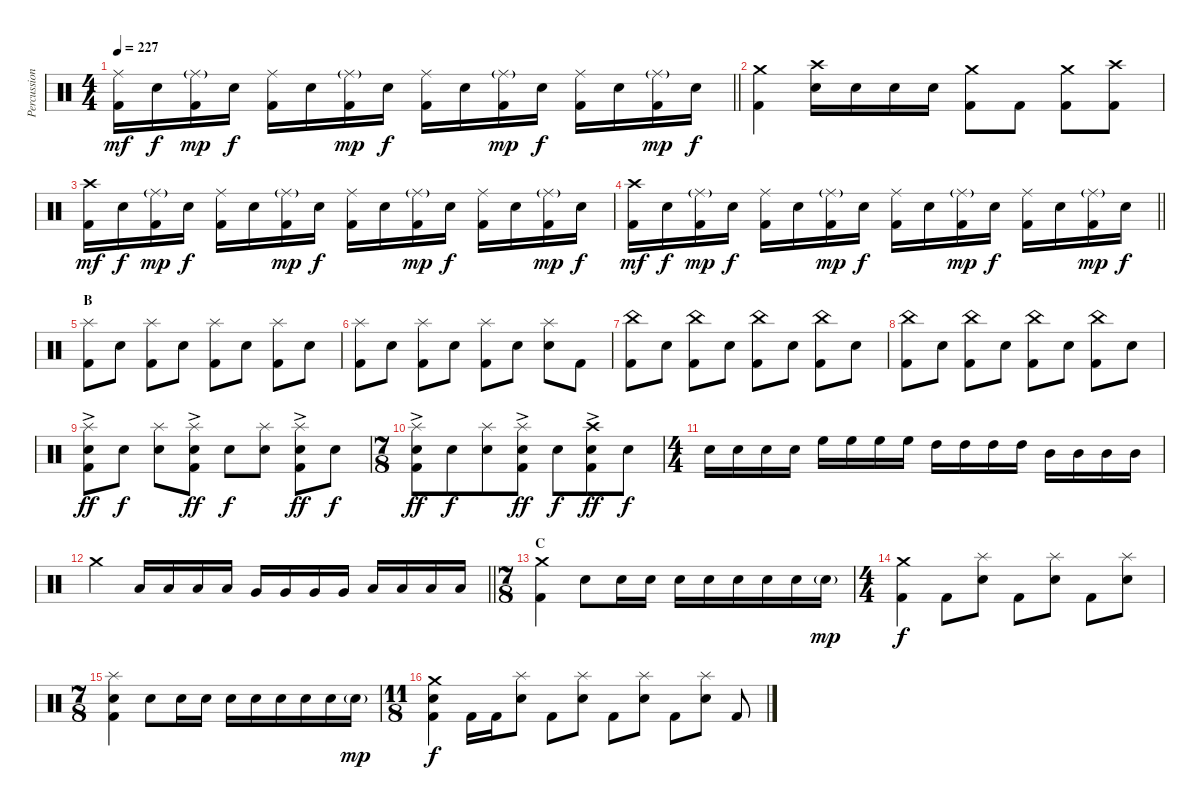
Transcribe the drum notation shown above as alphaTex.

\track ("Percussion" "Percussion") {instrument percussion}
\staff {score}
\articulation defaults
\ts (4 4)
\tempo 227
\clef neutral
\barLineRight lightlight
\ks c
("Ride (middle)" "Kick (hit) 2").16{dy mf} "Electric Snare (hit)".16{dy f} ("Ride (middle)"{g} "Kick (hit) 2").16{dy mp} "Electric Snare (hit)".16{dy f} ("Ride (middle)" "Kick (hit) 2").16 "Electric Snare (hit)".16 ("Ride (middle)"{g} "Kick (hit) 2").16{dy mp} "Electric Snare (hit)".16{dy f} ("Ride (middle)" "Kick (hit) 2").16 "Electric Snare (hit)".16 ("Ride (middle)"{g} "Kick (hit) 2").16{dy mp} "Electric Snare (hit)".16{dy f} ("Ride (middle)" "Kick (hit) 2").16 "Electric Snare (hit)".16 ("Ride (middle)"{g} "Kick (hit) 2").16{dy mp} "Electric Snare (hit)".16{dy f} |
\section ("" "")
("Crash medium (hit)" "Kick (hit) 2").4 ("Crash high (hit)" "Electric Snare (hit)").16 "Electric Snare (hit)".16 "Electric Snare (hit)".16 "Electric Snare (hit)".16 ("Crash medium (hit)" "Kick (hit) 2").8 "Kick (hit) 2".8 ("Crash medium (hit)" "Kick (hit) 2").8 ("Crash high (hit)" "Kick (hit) 2").8 |
("Crash high (hit)" "Kick (hit) 2").16{dy mf} "Electric Snare (hit)".16{dy f} ("Ride (middle)"{g} "Kick (hit) 2").16{dy mp} "Electric Snare (hit)".16{dy f} ("Ride (middle)" "Kick (hit) 2").16 "Electric Snare (hit)".16 ("Ride (middle)"{g} "Kick (hit) 2").16{dy mp} "Electric Snare (hit)".16{dy f} ("Ride (middle)" "Kick (hit) 2").16 "Electric Snare (hit)".16 ("Ride (middle)"{g} "Kick (hit) 2").16{dy mp} "Electric Snare (hit)".16{dy f} ("Ride (middle)" "Kick (hit) 2").16 "Electric Snare (hit)".16 ("Ride (middle)"{g} "Kick (hit) 2").16{dy mp} "Electric Snare (hit)".16{dy f} |
\barLineRight lightlight
("Crash high (hit)" "Kick (hit) 2").16{dy mf} "Electric Snare (hit)".16{dy f} ("Ride (middle)"{g} "Kick (hit) 2").16{dy mp} "Electric Snare (hit)".16{dy f} ("Ride (middle)" "Kick (hit) 2").16 "Electric Snare (hit)".16 ("Ride (middle)"{g} "Kick (hit) 2").16{dy mp} "Electric Snare (hit)".16{dy f} ("Ride (middle)" "Kick (hit) 2").16 "Electric Snare (hit)".16 ("Ride (middle)"{g} "Kick (hit) 2").16{dy mp} "Electric Snare (hit)".16{dy f} ("Ride (middle)" "Kick (hit) 2").16 "Electric Snare (hit)".16 ("Ride (middle)"{g} "Kick (hit) 2").16{dy mp} "Electric Snare (hit)".16{dy f} |
\section ("" "B")
("Splash (hit)" "Kick (hit) 2").8 "Electric Snare (hit)".8 ("Splash (hit)" "Kick (hit) 2").8 "Electric Snare (hit)".8 ("Splash (hit)" "Kick (hit) 2").8 "Electric Snare (hit)".8 ("Splash (hit)" "Kick (hit) 2").8 "Electric Snare (hit)".8 |
("Splash (hit)" "Kick (hit) 2").8 "Electric Snare (hit)".8 ("Splash (hit)" "Kick (hit) 2").8 "Electric Snare (hit)".8 ("Splash (hit)" "Kick (hit) 2").8 "Electric Snare (hit)".8 ("Splash (hit)" "Electric Snare (hit)").8 "Kick (hit) 2".8 |
("China (hit)" "Kick (hit) 2").8 "Electric Snare (hit)".8 ("China (hit)" "Kick (hit) 2").8 "Electric Snare (hit)".8 ("China (hit)" "Kick (hit) 2").8 "Electric Snare (hit)".8 ("China (hit)" "Kick (hit) 2").8 "Electric Snare (hit)".8 |
("China (hit)" "Kick (hit) 2").8 "Electric Snare (hit)".8 ("China (hit)" "Kick (hit) 2").8 "Electric Snare (hit)".8 ("China (hit)" "Kick (hit) 2").8 "Electric Snare (hit)".8 ("China (hit)" "Kick (hit) 2").8 "Electric Snare (hit)".8 |
("Splash (hit)"{ac} "Electric Snare (hit)" "Kick (hit) 2").8{dy ff} "Electric Snare (hit)".8{dy f} ("Splash (hit)" "Electric Snare (hit)").8 ("Splash (hit)"{ac} "Electric Snare (hit)" "Kick (hit) 2").8{dy ff} "Electric Snare (hit)".8{dy f} ("Splash (hit)" "Electric Snare (hit)").8 ("Splash (hit)"{ac} "Electric Snare (hit)" "Kick (hit) 2").8{dy ff} "Electric Snare (hit)".8{dy f} |
\ts (7 8)
("Splash (hit)"{ac} "Electric Snare (hit)" "Kick (hit) 2").8{dy ff} "Electric Snare (hit)".8{dy f} ("Splash (hit)" "Electric Snare (hit)").8 ("Splash (hit)"{ac} "Electric Snare (hit)" "Kick (hit) 2").8{dy ff} "Electric Snare (hit)".8{dy f} ("Crash high (hit)"{ac} "Electric Snare (hit)" "Kick (hit) 2").8{dy ff} "Electric Snare (hit)".8{dy f} |
\ts (4 4)
"Electric Snare (hit)".16 "Electric Snare (hit)".16 "Electric Snare (hit)".16 "Electric Snare (hit)".16 "High Floor Tom (hit)".16 "High Floor Tom (hit)".16 "High Floor Tom (hit)".16 "High Floor Tom (hit)".16 "High Tom (hit)".16 "High Tom (hit)".16 "High Tom (hit)".16 "High Tom (hit)".16 "Mid Tom (hit)".16 "Mid Tom (hit)".16 "Mid Tom (hit)".16 "Mid Tom (hit)".16 |
\barLineRight lightlight "Crash medium (hit)".4 "Low Tom (hit)".16 "Low Tom (hit)".16 "Low Tom (hit)".16 "Low Tom (hit)".16 "Very Low Tom (hit)".16 "Very Low Tom (hit)".16 "Very Low Tom (hit)".16 "Very Low Tom (hit)".16 "Low Floor Tom (hit)".16 "Low Floor Tom (hit)".16 "Low Floor Tom (hit)".16 "Low Floor Tom (hit)".16
|
\ts (7 8)
\section ("" "C")
("Crash medium (hit)" "Kick (hit) 2").4 "Electric Snare (hit)".8 "Electric Snare (hit)".16 "Electric Snare (hit)".16 "Electric Snare (hit)".16 "Electric Snare (hit)".16 "Electric Snare (hit)".16 "Electric Snare (hit)".16 "Electric Snare (hit)".16 "Electric Snare (hit)"{g}.16{dy mp} |
\ts (4 4)
("Crash medium (hit)" "Kick (hit) 2").4{dy f} "Kick (hit) 2".8 ("Splash (hit)" "Electric Snare (hit)").8 "Kick (hit) 2".8 ("Splash (hit)" "Electric Snare (hit)").8 "Kick (hit) 2".8 ("Splash (hit)" "Electric Snare (hit)").8 |
\ts (7 8)
("Splash (hit)" "Electric Snare (hit)" "Kick (hit) 2").4 "Electric Snare (hit)".8 "Electric Snare (hit)".16 "Electric Snare (hit)".16 "Electric Snare (hit)".16 "Electric Snare (hit)".16 "Electric Snare (hit)".16 "Electric Snare (hit)".16 "Electric Snare (hit)".16 "Electric Snare (hit)"{g}.16{dy mp} |
\ts (11 8)
("Crash medium (hit)" "Electric Snare (hit)" "Kick (hit) 2").4{dy f} "Kick (hit) 2".16 "Kick (hit) 2".16 ("Splash (hit)" "Electric Snare (hit)").8 "Kick (hit) 2".8 ("Splash (hit)" "Electric Snare (hit)").8 "Kick (hit) 2".8 ("Splash (hit)" "Electric Snare (hit)").8 "Kick (hit) 2".8 ("Splash (hit)" "Electric Snare (hit)").8 "Kick (hit) 2".8
